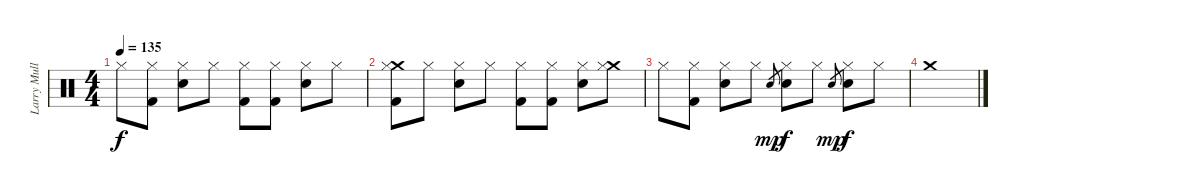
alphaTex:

\track ("Larry Mullen Jr." "Larry Mull") {instrument percussion}
\staff {score}
\articulation defaults
\ts (4 4)
\tempo 135
\clef neutral
\ks c "Hi-Hat (closed)".8{dy f}
("Kick (hit) 2" "Hi-Hat (closed)").8 ("Electric Snare (hit)" "Hi-Hat (closed)").8 "Hi-Hat (closed)".8 ("Kick (hit) 2" "Hi-Hat (closed)").8 ("Kick (hit) 2" "Hi-Hat (closed)").8 ("Electric Snare (hit)" "Hi-Hat (closed)").8 "Hi-Hat (closed)".8 |
("Kick (hit) 2" "Crash medium (hit)" "Hi-Hat (closed)").8 "Hi-Hat (closed)".8 ("Electric Snare (hit)" "Hi-Hat (closed)").8 "Hi-Hat (closed)".8 ("Kick (hit) 2" "Hi-Hat (closed)").8 ("Kick (hit) 2" "Hi-Hat (closed)").8 ("Electric Snare (hit)" "Hi-Hat (closed)").8 ("Crash medium (hit)" "Hi-Hat (closed)").8 |
"Hi-Hat (closed)".8 ("Kick (hit) 2" "Hi-Hat (closed)").8 ("Electric Snare (hit)" "Hi-Hat (closed)").8 "Hi-Hat (closed)".8 "Electric Snare (hit)".8{gr dy mp} ("Electric Snare (hit)" "Hi-Hat (closed)").8{dy f} "Hi-Hat (closed)".8 "Electric Snare (hit)".8{gr dy mp} ("Electric Snare (hit)" "Hi-Hat (closed)").8{dy f} "Hi-Hat (closed)".8 |
"Crash medium (hit)".1
